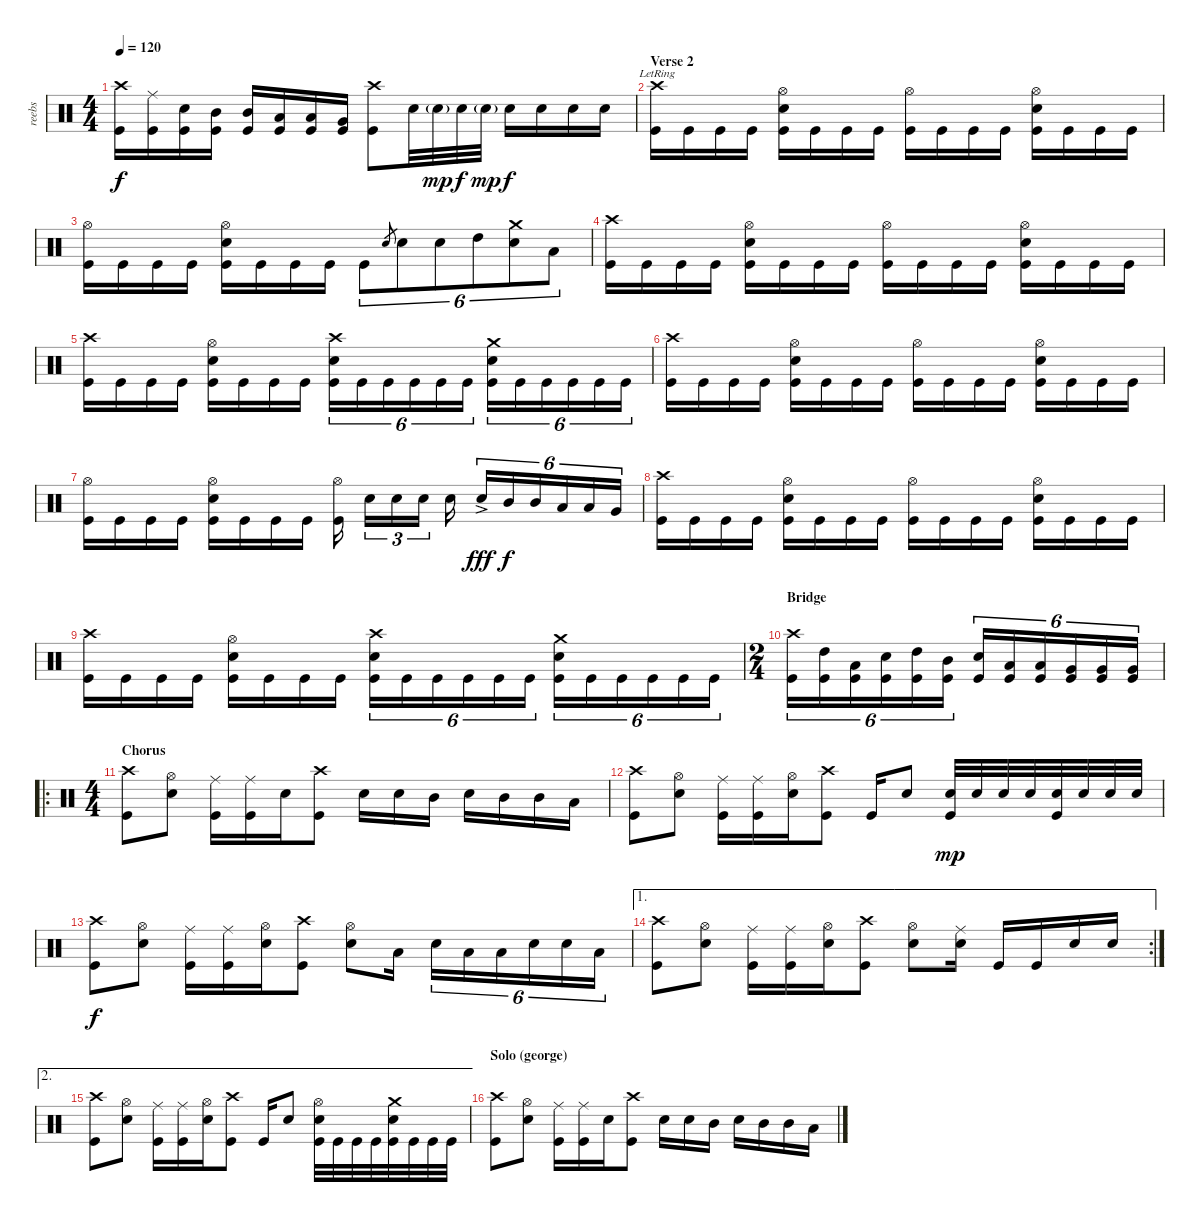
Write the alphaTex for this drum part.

\track ("reebs" "reebs") {instrument percussion}
\staff {score}
\articulation defaults
\ts (4 4)
\tempo 120
\clef neutral
\ks c
("Crash high (hit)" "Kick (hit)").16{dy f} ("Ride (middle)" "Kick (hit)").16 ("Electric Snare (hit)" "Kick (hit)").16 ("Mid Tom (hit)" "Kick (hit)").16 ("Mid Tom (hit)" "Kick (hit)").16 ("Low Tom (hit)" "Kick (hit)").16 ("Low Tom (hit)" "Kick (hit)").16 ("Very Low Tom (hit)" "Kick (hit)").16 ("Crash high (hit)" "Kick (hit)").8 "Electric Snare (hit)".32 "Electric Snare (hit)"{g}.32{dy mp} "Electric Snare (hit)".32{dy f} "Electric Snare (hit)"{g}.32{dy mp} "Electric Snare (hit)".16{dy f} "Electric Snare (hit)".16 "Electric Snare (hit)".16 "Electric Snare (hit)".16 |
\section ("" "Verse 2")
("Crash high (hit)"{lr} "Kick (hit)").16 "Kick (hit)".16 "Kick (hit)".16 "Kick (hit)".16 ("Hi-Hat (open)" "Electric Snare (hit)" "Kick (hit)").16 "Kick (hit)".16 "Kick (hit)".16 "Kick (hit)".16 ("Hi-Hat (open)" "Kick (hit)").16 "Kick (hit)".16 "Kick (hit)".16 "Kick (hit)".16 ("Hi-Hat (open)" "Electric Snare (hit)" "Kick (hit)").16 "Kick (hit)".16 "Kick (hit)".16 "Kick (hit)".16 |
("Hi-Hat (open)" "Kick (hit)").16 "Kick (hit)".16 "Kick (hit)".16 "Kick (hit)".16 ("Hi-Hat (open)" "Electric Snare (hit)" "Kick (hit)").16 "Kick (hit)".16 "Kick (hit)".16 "Kick (hit)".16 "Kick (hit)".8{tu (6 4)} "Electric Snare (hit)".8{gr} "Electric Snare (hit)".8{tu (6 4)} "Electric Snare (hit)".8{tu (6 4)} "High Tom (hit)".8{tu (6 4)} ("Crash medium (hit)" "Electric Snare (hit)").8{tu (6 4)} "Low Tom (hit)".8{tu (6 4)} |
("Crash high (hit)" "Kick (hit)").16 "Kick (hit)".16 "Kick (hit)".16 "Kick (hit)".16 ("Hi-Hat (open)" "Electric Snare (hit)" "Kick (hit)").16 "Kick (hit)".16 "Kick (hit)".16 "Kick (hit)".16 ("Hi-Hat (open)" "Kick (hit)").16 "Kick (hit)".16 "Kick (hit)".16 "Kick (hit)".16 ("Hi-Hat (open)" "Electric Snare (hit)" "Kick (hit)").16 "Kick (hit)".16 "Kick (hit)".16 "Kick (hit)".16 |
("Crash high (hit)" "Kick (hit)").16 "Kick (hit)".16 "Kick (hit)".16 "Kick (hit)".16 ("Hi-Hat (open)" "Electric Snare (hit)" "Kick (hit)").16 "Kick (hit)".16 "Kick (hit)".16 "Kick (hit)".16 ("Crash high (hit)" "Electric Snare (hit)" "Kick (hit)").16{tu (6 4)} "Kick (hit)".16{tu (6 4)} "Kick (hit)".16{tu (6 4)} "Kick (hit)".16{tu (6 4)} "Kick (hit)".16{tu (6 4)} "Kick (hit)".16{tu (6 4)} ("Crash medium (hit)" "Electric Snare (hit)" "Kick (hit)").16{tu (6 4)} "Kick (hit)".16{tu (6 4)} "Kick (hit)".16{tu (6 4)} "Kick (hit)".16{tu (6 4)} "Kick (hit)".16{tu (6 4)} "Kick (hit)".16{tu (6 4)} |
("Crash high (hit)" "Kick (hit)").16 "Kick (hit)".16 "Kick (hit)".16 "Kick (hit)".16 ("Hi-Hat (open)" "Electric Snare (hit)" "Kick (hit)").16 "Kick (hit)".16 "Kick (hit)".16 "Kick (hit)".16 ("Hi-Hat (open)" "Kick (hit)").16 "Kick (hit)".16 "Kick (hit)".16 "Kick (hit)".16 ("Hi-Hat (open)" "Electric Snare (hit)" "Kick (hit)").16 "Kick (hit)".16 "Kick (hit)".16 "Kick (hit)".16 |
("Hi-Hat (open)" "Kick (hit)").16 "Kick (hit)".16 "Kick (hit)".16 "Kick (hit)".16 ("Hi-Hat (open)" "Electric Snare (hit)" "Kick (hit)").16 "Kick (hit)".16 "Kick (hit)".16 "Kick (hit)".16 ("Hi-Hat (open)" "Kick (hit)").16 "Electric Snare (hit)".16{tu (3 2)} "Electric Snare (hit)".16{tu (3 2)} "Electric Snare (hit)".16{tu (3 2)} "Electric Snare (hit)".16 "Electric Snare (hit)"{ac}.16{tu (6 4) dy fff} "Mid Tom (hit)".16{tu (6 4) dy f} "Mid Tom (hit)".16{tu (6 4)} "Low Tom (hit)".16{tu (6 4)} "Low Tom (hit)".16{tu (6 4)} "Very Low Tom (hit)".16{tu (6 4)} |
("Crash high (hit)" "Kick (hit)").16 "Kick (hit)".16 "Kick (hit)".16 "Kick (hit)".16 ("Hi-Hat (open)" "Electric Snare (hit)" "Kick (hit)").16 "Kick (hit)".16 "Kick (hit)".16 "Kick (hit)".16 ("Hi-Hat (open)" "Kick (hit)").16 "Kick (hit)".16 "Kick (hit)".16 "Kick (hit)".16 ("Hi-Hat (open)" "Electric Snare (hit)" "Kick (hit)").16 "Kick (hit)".16 "Kick (hit)".16 "Kick (hit)".16 |
("Crash high (hit)" "Kick (hit)").16 "Kick (hit)".16 "Kick (hit)".16 "Kick (hit)".16 ("Hi-Hat (open)" "Electric Snare (hit)" "Kick (hit)").16 "Kick (hit)".16 "Kick (hit)".16 "Kick (hit)".16 ("Crash high (hit)" "Electric Snare (hit)" "Kick (hit)").16{tu (6 4)} "Kick (hit)".16{tu (6 4)} "Kick (hit)".16{tu (6 4)} "Kick (hit)".16{tu (6 4)} "Kick (hit)".16{tu (6 4)} "Kick (hit)".16{tu (6 4)} ("Crash medium (hit)" "Electric Snare (hit)" "Kick (hit)").16{tu (6 4)} "Kick (hit)".16{tu (6 4)} "Kick (hit)".16{tu (6 4)} "Kick (hit)".16{tu (6 4)} "Kick (hit)".16{tu (6 4)} "Kick (hit)".16{tu (6 4)} |
\ts (2 4)
\section ("" "Bridge")
("Crash high (hit)" "Kick (hit)").16{tu (6 4)} ("High Tom (hit)" "Kick (hit)").16{tu (6 4)} ("Low Tom (hit)" "Kick (hit)").16{tu (6 4)} ("Electric Snare (hit)" "Kick (hit)").16{tu (6 4)} ("High Tom (hit)" "Kick (hit)").16{tu (6 4)} ("Mid Tom (hit)" "Kick (hit)").16{tu (6 4)} ("Electric Snare (hit)" "Kick (hit)").16{tu (6 4)} ("Low Tom (hit)" "Kick (hit)").16{tu (6 4)} ("Low Tom (hit)" "Kick (hit)").16{tu (6 4)} ("Very Low Tom (hit)" "Kick (hit)").16{tu (6 4)} ("Very Low Tom (hit)" "Kick (hit)").16{tu (6 4)} ("Very Low Tom (hit)" "Kick (hit)").16{tu (6 4)} |
\ro
\ts (4 4)
\section ("" "Chorus")
("Crash high (hit)" "Kick (hit)").8 ("Hi-Hat (open)" "Electric Snare (hit)").8 ("Ride (middle)" "Kick (hit)").16 ("Ride (middle)" "Kick (hit)").16 "Electric Snare (hit)".16 ("Crash high (hit)" "Kick (hit)").8 "Electric Snare (hit)".16 "Electric Snare (hit)".16 "Mid Tom (hit)".16 "Electric Snare (hit)".16 "Mid Tom (hit)".16 "Mid Tom (hit)".16 "Low Tom (hit)".16 |
("Crash high (hit)" "Kick (hit)").8 ("Hi-Hat (open)" "Electric Snare (hit)").8 ("Ride (middle)" "Kick (hit)").16 ("Ride (middle)" "Kick (hit)").16 ("Hi-Hat (open)" "Electric Snare (hit)").16 ("Crash high (hit)" "Kick (hit)").8 "Kick (hit)".16 "Electric Snare (hit)".8 ("Electric Snare (hit)" "Kick (hit)").32{dy mp} "Electric Snare (hit)".32 "Electric Snare (hit)".32 "Electric Snare (hit)".32 ("Electric Snare (hit)" "Kick (hit)").32 "Electric Snare (hit)".32 "Electric Snare (hit)".32 "Electric Snare (hit)".32 |
("Crash high (hit)" "Kick (hit)").8{dy f} ("Hi-Hat (open)" "Electric Snare (hit)").8 ("Ride (middle)" "Kick (hit)").16 ("Ride (middle)" "Kick (hit)").16 ("Hi-Hat (open)" "Electric Snare (hit)").16 ("Crash high (hit)" "Kick (hit)").8 ("Hi-Hat (open)" "Electric Snare (hit)").8 "Low Tom (hit)".16 "Electric Snare (hit)".16{tu (6 4)} "Low Tom (hit)".16{tu (6 4)} "Low Tom (hit)".16{tu (6 4)} "Electric Snare (hit)".16{tu (6 4)} "Electric Snare (hit)".16{tu (6 4)} "Low Tom (hit)".16{tu (6 4)} |
\ae 1
\rc 2
("Crash high (hit)" "Kick (hit)").8 ("Hi-Hat (open)" "Electric Snare (hit)").8 ("Ride (middle)" "Kick (hit)").16 ("Ride (middle)" "Kick (hit)").16 ("Hi-Hat (open)" "Electric Snare (hit)").16 ("Crash high (hit)" "Kick (hit)").8 ("Hi-Hat (open)" "Electric Snare (hit)").8 ("Ride (middle)" "Electric Snare (hit)").16 "Kick (hit)".16 "Kick (hit)".16 "Electric Snare (hit)".16 "Electric Snare (hit)".16 |
\ae 2
("Crash high (hit)" "Kick (hit)").8 ("Hi-Hat (open)" "Electric Snare (hit)").8 ("Ride (middle)" "Kick (hit)").16 ("Ride (middle)" "Kick (hit)").16 ("Hi-Hat (open)" "Electric Snare (hit)").16 ("Crash high (hit)" "Kick (hit)").8 "Kick (hit)".16 "Electric Snare (hit)".8 ("Hi-Hat (open)" "Electric Snare (hit)" "Kick (hit)").32 "Kick (hit)".32 "Kick (hit)".32 "Kick (hit)".32 ("Crash medium (hit)" "Electric Snare (hit)" "Kick (hit)").32 "Kick (hit)".32 "Kick (hit)".32 "Kick (hit)".32 |
\section ("" "Solo (george)")
("Crash high (hit)" "Kick (hit)").8 ("Hi-Hat (open)" "Electric Snare (hit)").8 ("Ride (middle)" "Kick (hit)").16 ("Ride (middle)" "Kick (hit)").16 "Electric Snare (hit)".16 ("Crash high (hit)" "Kick (hit)").8 "Electric Snare (hit)".16 "Electric Snare (hit)".16 "Mid Tom (hit)".16 "Electric Snare (hit)".16 "Mid Tom (hit)".16 "Mid Tom (hit)".16 "Low Tom (hit)".16
